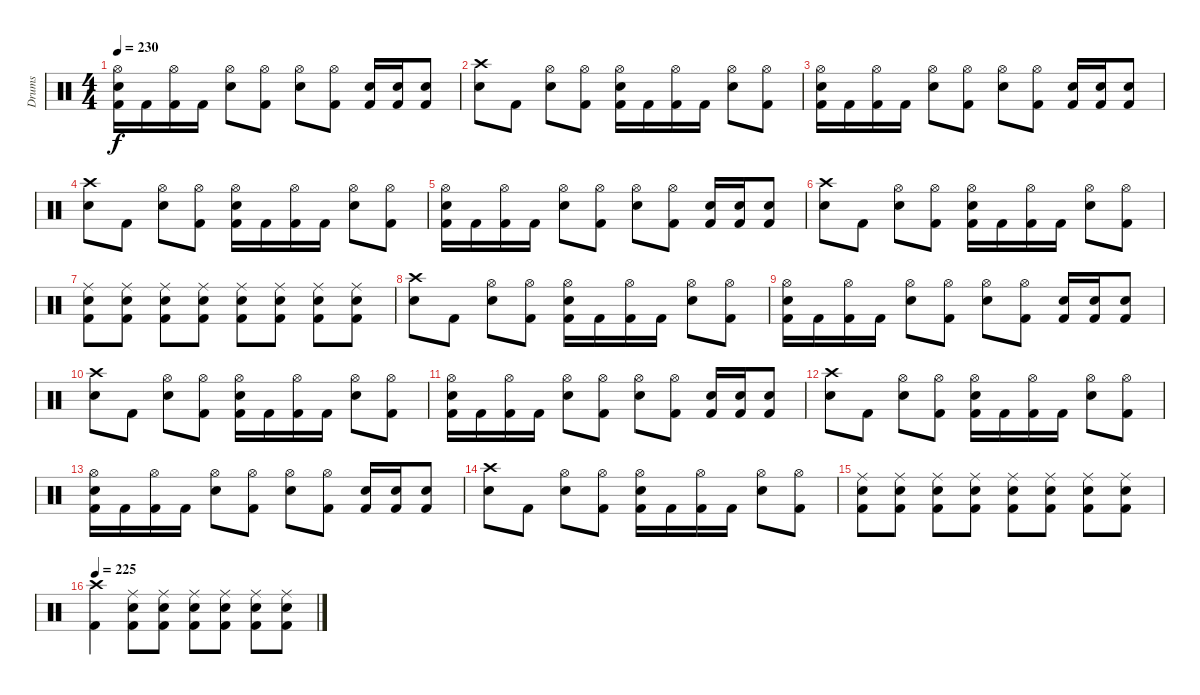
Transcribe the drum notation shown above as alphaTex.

\track ("Drums" "Drums") {instrument percussion}
\staff {score}
\articulation defaults
\ts (4 4)
\tempo 230
\clef neutral
\ks c
("Hi-Hat (open)" "Electric Snare (hit)" "Kick (hit) 2").16{dy f} "Kick (hit) 2".16 ("Hi-Hat (open)" "Kick (hit) 2").16 "Kick (hit) 2".16 ("Hi-Hat (open)" "Electric Snare (hit)").8 ("Hi-Hat (open)" "Kick (hit) 2").8 ("Hi-Hat (open)" "Electric Snare (hit)").8 ("Hi-Hat (open)" "Kick (hit) 2").8 ("Electric Snare (hit)" "Kick (hit) 2").16 ("Electric Snare (hit)" "Kick (hit) 2").16 ("Electric Snare (hit)" "Kick (hit) 2").8 |
("Crash high (hit)" "Electric Snare (hit)").8 "Kick (hit) 2".8 ("Hi-Hat (open)" "Electric Snare (hit)").8 ("Hi-Hat (open)" "Kick (hit) 2").8 ("Hi-Hat (open)" "Electric Snare (hit)" "Kick (hit) 2").16 "Kick (hit) 2".16 ("Hi-Hat (open)" "Kick (hit) 2").16 "Kick (hit) 2".16 ("Hi-Hat (open)" "Electric Snare (hit)").8 ("Hi-Hat (open)" "Kick (hit) 2").8 |
("Hi-Hat (open)" "Electric Snare (hit)" "Kick (hit) 2").16 "Kick (hit) 2".16 ("Hi-Hat (open)" "Kick (hit) 2").16 "Kick (hit) 2".16 ("Hi-Hat (open)" "Electric Snare (hit)").8 ("Hi-Hat (open)" "Kick (hit) 2").8 ("Hi-Hat (open)" "Electric Snare (hit)").8 ("Hi-Hat (open)" "Kick (hit) 2").8 ("Electric Snare (hit)" "Kick (hit) 2").16 ("Electric Snare (hit)" "Kick (hit) 2").16 ("Electric Snare (hit)" "Kick (hit) 2").8 |
("Crash high (hit)" "Electric Snare (hit)").8 "Kick (hit) 2".8 ("Hi-Hat (open)" "Electric Snare (hit)").8 ("Hi-Hat (open)" "Kick (hit) 2").8 ("Hi-Hat (open)" "Electric Snare (hit)" "Kick (hit) 2").16 "Kick (hit) 2".16 ("Hi-Hat (open)" "Kick (hit) 2").16 "Kick (hit) 2".16 ("Hi-Hat (open)" "Electric Snare (hit)").8 ("Hi-Hat (open)" "Kick (hit) 2").8 |
("Hi-Hat (open)" "Electric Snare (hit)" "Kick (hit) 2").16 "Kick (hit) 2".16 ("Hi-Hat (open)" "Kick (hit) 2").16 "Kick (hit) 2".16 ("Hi-Hat (open)" "Electric Snare (hit)").8 ("Hi-Hat (open)" "Kick (hit) 2").8 ("Hi-Hat (open)" "Electric Snare (hit)").8 ("Hi-Hat (open)" "Kick (hit) 2").8 ("Electric Snare (hit)" "Kick (hit) 2").16 ("Electric Snare (hit)" "Kick (hit) 2").16 ("Electric Snare (hit)" "Kick (hit) 2").8 |
("Crash high (hit)" "Electric Snare (hit)").8 "Kick (hit) 2".8 ("Hi-Hat (open)" "Electric Snare (hit)").8 ("Hi-Hat (open)" "Kick (hit) 2").8 ("Hi-Hat (open)" "Electric Snare (hit)" "Kick (hit) 2").16 "Kick (hit) 2".16 ("Hi-Hat (open)" "Kick (hit) 2").16 "Kick (hit) 2".16 ("Hi-Hat (open)" "Electric Snare (hit)").8 ("Hi-Hat (open)" "Kick (hit) 2").8 |
("Ride (middle)" "Electric Snare (hit)" "Kick (hit) 2").8 ("Ride (middle)" "Electric Snare (hit)" "Kick (hit) 2").8 ("Ride (middle)" "Electric Snare (hit)" "Kick (hit) 2").8 ("Ride (middle)" "Electric Snare (hit)" "Kick (hit) 2").8 ("Ride (middle)" "Electric Snare (hit)" "Kick (hit) 2").8 ("Ride (middle)" "Electric Snare (hit)" "Kick (hit) 2").8 ("Ride (middle)" "Electric Snare (hit)" "Kick (hit) 2").8 ("Ride (middle)" "Electric Snare (hit)" "Kick (hit) 2").8 |
("Crash high (hit)" "Electric Snare (hit)").8 "Kick (hit) 2".8 ("Hi-Hat (open)" "Electric Snare (hit)").8 ("Hi-Hat (open)" "Kick (hit) 2").8 ("Hi-Hat (open)" "Electric Snare (hit)" "Kick (hit) 2").16 "Kick (hit) 2".16 ("Hi-Hat (open)" "Kick (hit) 2").16 "Kick (hit) 2".16 ("Hi-Hat (open)" "Electric Snare (hit)").8 ("Hi-Hat (open)" "Kick (hit) 2").8 |
("Hi-Hat (open)" "Electric Snare (hit)" "Kick (hit) 2").16 "Kick (hit) 2".16 ("Hi-Hat (open)" "Kick (hit) 2").16 "Kick (hit) 2".16 ("Hi-Hat (open)" "Electric Snare (hit)").8 ("Hi-Hat (open)" "Kick (hit) 2").8 ("Hi-Hat (open)" "Electric Snare (hit)").8 ("Hi-Hat (open)" "Kick (hit) 2").8 ("Electric Snare (hit)" "Kick (hit) 2").16 ("Electric Snare (hit)" "Kick (hit) 2").16 ("Electric Snare (hit)" "Kick (hit) 2").8 |
("Crash high (hit)" "Electric Snare (hit)").8 "Kick (hit) 2".8 ("Hi-Hat (open)" "Electric Snare (hit)").8 ("Hi-Hat (open)" "Kick (hit) 2").8 ("Hi-Hat (open)" "Electric Snare (hit)" "Kick (hit) 2").16 "Kick (hit) 2".16 ("Hi-Hat (open)" "Kick (hit) 2").16 "Kick (hit) 2".16 ("Hi-Hat (open)" "Electric Snare (hit)").8 ("Hi-Hat (open)" "Kick (hit) 2").8 |
("Hi-Hat (open)" "Electric Snare (hit)" "Kick (hit) 2").16 "Kick (hit) 2".16 ("Hi-Hat (open)" "Kick (hit) 2").16 "Kick (hit) 2".16 ("Hi-Hat (open)" "Electric Snare (hit)").8 ("Hi-Hat (open)" "Kick (hit) 2").8 ("Hi-Hat (open)" "Electric Snare (hit)").8 ("Hi-Hat (open)" "Kick (hit) 2").8 ("Electric Snare (hit)" "Kick (hit) 2").16 ("Electric Snare (hit)" "Kick (hit) 2").16 ("Electric Snare (hit)" "Kick (hit) 2").8 |
("Crash high (hit)" "Electric Snare (hit)").8 "Kick (hit) 2".8 ("Hi-Hat (open)" "Electric Snare (hit)").8 ("Hi-Hat (open)" "Kick (hit) 2").8 ("Hi-Hat (open)" "Electric Snare (hit)" "Kick (hit) 2").16 "Kick (hit) 2".16 ("Hi-Hat (open)" "Kick (hit) 2").16 "Kick (hit) 2".16 ("Hi-Hat (open)" "Electric Snare (hit)").8 ("Hi-Hat (open)" "Kick (hit) 2").8 |
("Hi-Hat (open)" "Electric Snare (hit)" "Kick (hit) 2").16 "Kick (hit) 2".16 ("Hi-Hat (open)" "Kick (hit) 2").16 "Kick (hit) 2".16 ("Hi-Hat (open)" "Electric Snare (hit)").8 ("Hi-Hat (open)" "Kick (hit) 2").8 ("Hi-Hat (open)" "Electric Snare (hit)").8 ("Hi-Hat (open)" "Kick (hit) 2").8 ("Electric Snare (hit)" "Kick (hit) 2").16 ("Electric Snare (hit)" "Kick (hit) 2").16 ("Electric Snare (hit)" "Kick (hit) 2").8 |
("Crash high (hit)" "Electric Snare (hit)").8 "Kick (hit) 2".8 ("Hi-Hat (open)" "Electric Snare (hit)").8 ("Hi-Hat (open)" "Kick (hit) 2").8 ("Hi-Hat (open)" "Electric Snare (hit)" "Kick (hit) 2").16 "Kick (hit) 2".16 ("Hi-Hat (open)" "Kick (hit) 2").16 "Kick (hit) 2".16 ("Hi-Hat (open)" "Electric Snare (hit)").8 ("Hi-Hat (open)" "Kick (hit) 2").8 |
("Ride (middle)" "Electric Snare (hit)" "Kick (hit) 2").8 ("Ride (middle)" "Electric Snare (hit)" "Kick (hit) 2").8 ("Ride (middle)" "Electric Snare (hit)" "Kick (hit) 2").8 ("Ride (middle)" "Electric Snare (hit)" "Kick (hit) 2").8 ("Ride (middle)" "Electric Snare (hit)" "Kick (hit) 2").8 ("Ride (middle)" "Electric Snare (hit)" "Kick (hit) 2").8 ("Ride (middle)" "Electric Snare (hit)" "Kick (hit) 2").8 ("Ride (middle)" "Electric Snare (hit)" "Kick (hit) 2").8 |
\tempo 225
("Crash high (hit)" "Kick (hit) 2").4 ("Ride (middle)" "Electric Snare (hit)" "Kick (hit) 2").8 ("Ride (middle)" "Electric Snare (hit)" "Kick (hit) 2").8 ("Ride (middle)" "Electric Snare (hit)" "Kick (hit) 2").8 ("Ride (middle)" "Electric Snare (hit)" "Kick (hit) 2").8 ("Ride (middle)" "Electric Snare (hit)" "Kick (hit) 2").8 ("Ride (middle)" "Electric Snare (hit)" "Kick (hit) 2").8
